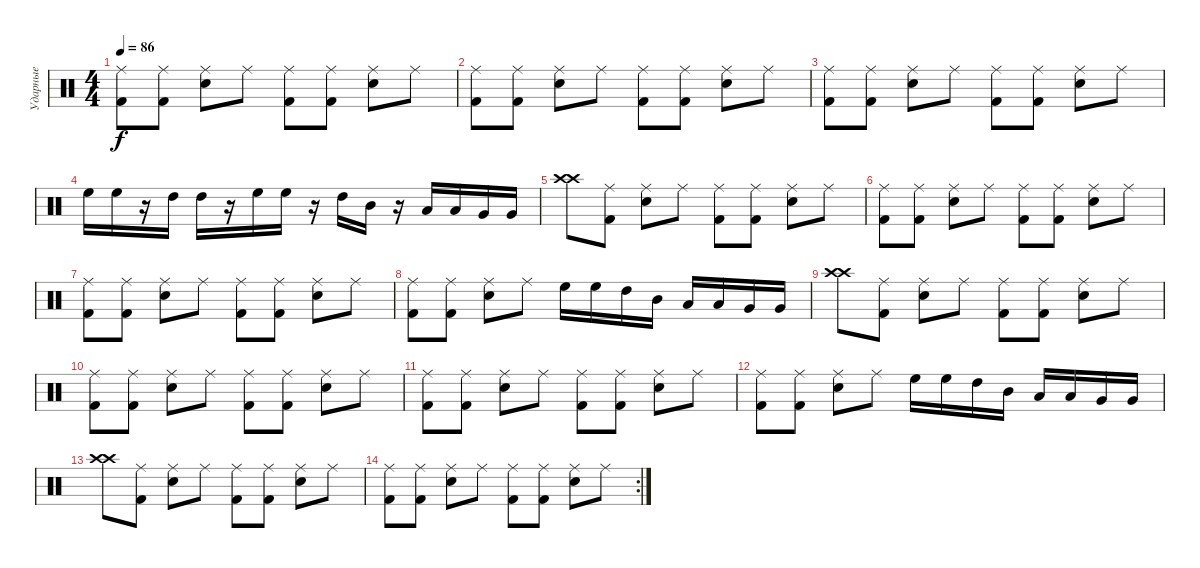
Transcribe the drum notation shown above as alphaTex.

\track ("Ударные" "Ударные") {instrument percussion}
\staff {score}
\articulation defaults
\ts (4 4)
\tempo 86
\clef neutral
\ks c
("Kick (hit) 2" "Ride (middle)").8{dy f} ("Kick (hit) 2" "Ride (middle)").8 ("Snare (hit) 2" "Ride (middle)").8 "Ride (middle)".8 ("Kick (hit) 2" "Ride (middle)").8 ("Kick (hit) 2" "Ride (middle)").8 ("Snare (hit) 2" "Ride (middle)").8 "Ride (middle)".8 |
("Kick (hit) 2" "Ride (middle)").8 ("Kick (hit) 2" "Ride (middle)").8 ("Snare (hit) 2" "Ride (middle)").8 "Ride (middle)".8 ("Kick (hit) 2" "Ride (middle)").8 ("Kick (hit) 2" "Ride (middle)").8 ("Snare (hit) 2" "Ride (middle)").8 "Ride (middle)".8 |
("Kick (hit) 2" "Ride (middle)").8 ("Kick (hit) 2" "Ride (middle)").8 ("Snare (hit) 2" "Ride (middle)").8 "Ride (middle)".8 ("Kick (hit) 2" "Ride (middle)").8 ("Kick (hit) 2" "Ride (middle)").8 ("Snare (hit) 2" "Ride (middle)").8 "Ride (middle)".8 |
"High Floor Tom (hit)".16 "High Floor Tom (hit)".16 r.16 "High Tom (hit)".16 "High Tom (hit)".16 r.16 "High Floor Tom (hit)".16 "High Floor Tom (hit)".16 r.16 "High Tom (hit)".16 "Mid Tom (hit)".16 r.16 "Low Tom (hit)".16 "Low Tom (hit)".16 "Very Low Tom (hit)".16 "Very Low Tom (hit)".16 |
("Crash high (hit)" "Crash high (hit)").8 ("Kick (hit) 2" "Ride (middle)").8 ("Snare (hit) 2" "Ride (middle)").8 "Ride (middle)".8 ("Kick (hit) 2" "Ride (middle)").8 ("Kick (hit) 2" "Ride (middle)").8 ("Snare (hit) 2" "Ride (middle)").8 "Ride (middle)".8 |
("Kick (hit) 2" "Ride (middle)").8 ("Kick (hit) 2" "Ride (middle)").8 ("Snare (hit) 2" "Ride (middle)").8 "Ride (middle)".8 ("Kick (hit) 2" "Ride (middle)").8 ("Kick (hit) 2" "Ride (middle)").8 ("Snare (hit) 2" "Ride (middle)").8 "Ride (middle)".8 |
("Kick (hit) 2" "Ride (middle)").8 ("Kick (hit) 2" "Ride (middle)").8 ("Snare (hit) 2" "Ride (middle)").8 "Ride (middle)".8 ("Kick (hit) 2" "Ride (middle)").8 ("Kick (hit) 2" "Ride (middle)").8 ("Snare (hit) 2" "Ride (middle)").8 "Ride (middle)".8 |
("Kick (hit) 2" "Ride (middle)").8 ("Kick (hit) 2" "Ride (middle)").8 ("Snare (hit) 2" "Ride (middle)").8 "Ride (middle)".8 "High Floor Tom (hit)".16 "High Floor Tom (hit)".16 "High Tom (hit)".16 "Mid Tom (hit)".16 "Low Tom (hit)".16 "Low Tom (hit)".16 "Very Low Tom (hit)".16 "Very Low Tom (hit)".16 |
("Crash high (hit)" "Crash high (hit)").8 ("Kick (hit) 2" "Ride (middle)").8 ("Snare (hit) 2" "Ride (middle)").8 "Ride (middle)".8 ("Kick (hit) 2" "Ride (middle)").8 ("Kick (hit) 2" "Ride (middle)").8 ("Snare (hit) 2" "Ride (middle)").8 "Ride (middle)".8 |
("Kick (hit) 2" "Ride (middle)").8 ("Kick (hit) 2" "Ride (middle)").8 ("Snare (hit) 2" "Ride (middle)").8 "Ride (middle)".8 ("Kick (hit) 2" "Ride (middle)").8 ("Kick (hit) 2" "Ride (middle)").8 ("Snare (hit) 2" "Ride (middle)").8 "Ride (middle)".8 |
("Kick (hit) 2" "Ride (middle)").8 ("Kick (hit) 2" "Ride (middle)").8 ("Snare (hit) 2" "Ride (middle)").8 "Ride (middle)".8 ("Kick (hit) 2" "Ride (middle)").8 ("Kick (hit) 2" "Ride (middle)").8 ("Snare (hit) 2" "Ride (middle)").8 "Ride (middle)".8 |
("Kick (hit) 2" "Ride (middle)").8 ("Kick (hit) 2" "Ride (middle)").8 ("Snare (hit) 2" "Ride (middle)").8 "Ride (middle)".8 "High Floor Tom (hit)".16 "High Floor Tom (hit)".16 "High Tom (hit)".16 "Mid Tom (hit)".16 "Low Tom (hit)".16 "Low Tom (hit)".16 "Very Low Tom (hit)".16 "Very Low Tom (hit)".16 |
("Crash high (hit)" "Crash high (hit)").8 ("Kick (hit) 2" "Ride (middle)").8 ("Snare (hit) 2" "Ride (middle)").8 "Ride (middle)".8 ("Kick (hit) 2" "Ride (middle)").8 ("Kick (hit) 2" "Ride (middle)").8 ("Snare (hit) 2" "Ride (middle)").8 "Ride (middle)".8 |
\rc 2
("Kick (hit) 2" "Ride (middle)").8 ("Kick (hit) 2" "Ride (middle)").8 ("Snare (hit) 2" "Ride (middle)").8 "Ride (middle)".8 ("Kick (hit) 2" "Ride (middle)").8 ("Kick (hit) 2" "Ride (middle)").8 ("Snare (hit) 2" "Ride (middle)").8 "Ride (middle)".8
